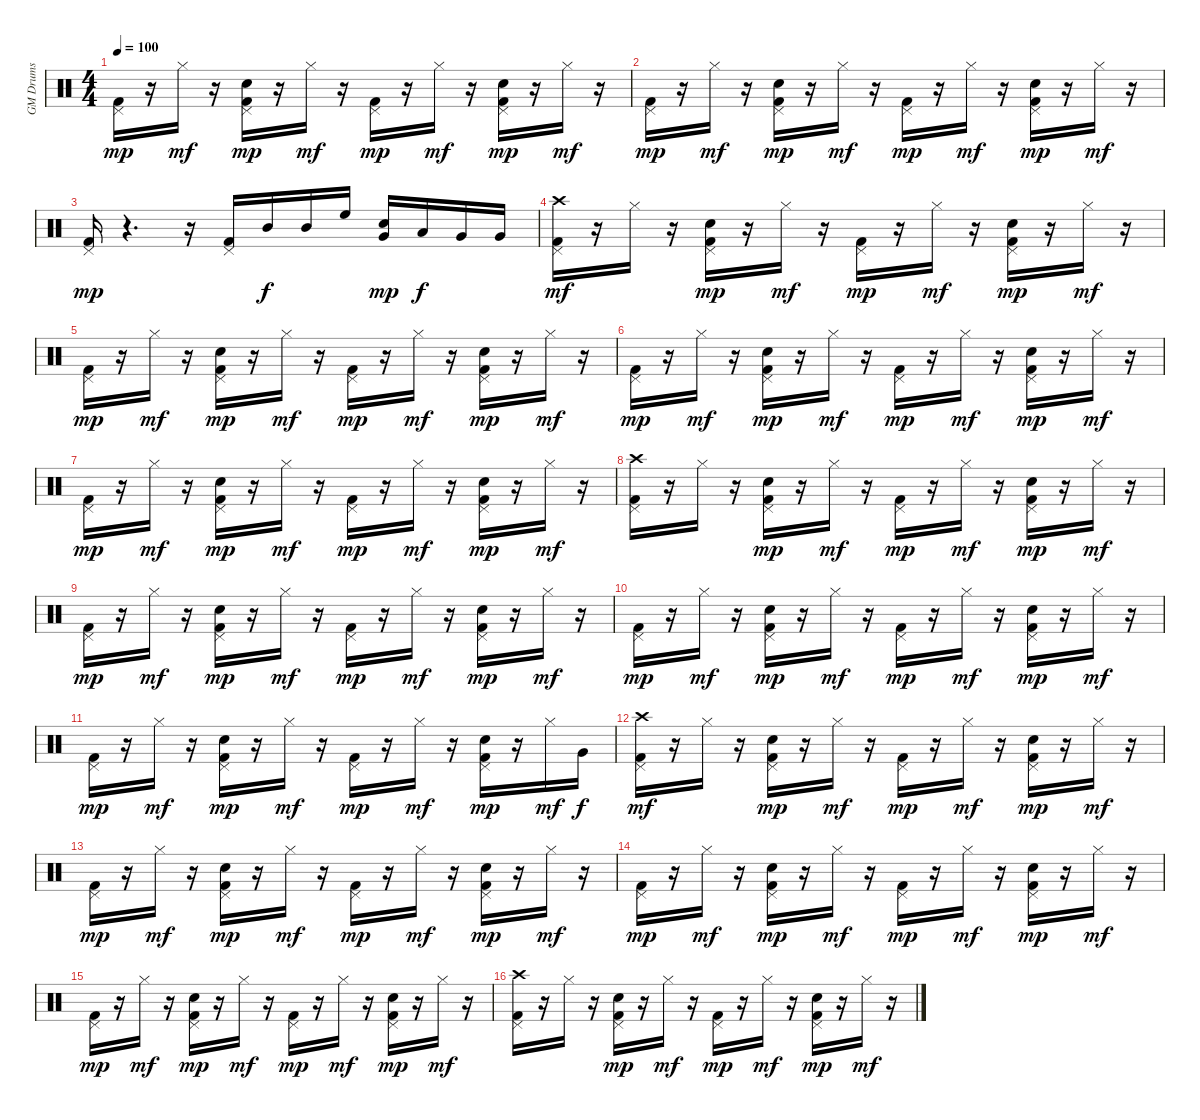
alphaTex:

\track ("GM Drums" "GM Drums") {instrument percussion}
\staff {score}
\articulation defaults
\ts (4 4)
\tempo 100
\clef neutral
\ks c
("Kick (hit) 2" "Pedal Hi-Hat (hit)").16{dy mp} r.16 "Hi-Hat (closed)".16{dy mf} r.16 ("Kick (hit) 2" "Snare (hit) 2" "Pedal Hi-Hat (hit)").16{dy mp} r.16 "Hi-Hat (closed)".16{dy mf} r.16 ("Kick (hit) 2" "Pedal Hi-Hat (hit)").16{dy mp} r.16 "Hi-Hat (closed)".16{dy mf} r.16 ("Kick (hit) 2" "Snare (hit) 2" "Pedal Hi-Hat (hit)").16{dy mp} r.16 "Hi-Hat (closed)".16{dy mf} r.16 |
("Kick (hit) 2" "Pedal Hi-Hat (hit)").16{dy mp} r.16 "Hi-Hat (closed)".16{dy mf} r.16 ("Kick (hit) 2" "Snare (hit) 2" "Pedal Hi-Hat (hit)").16{dy mp} r.16 "Hi-Hat (closed)".16{dy mf} r.16 ("Kick (hit) 2" "Pedal Hi-Hat (hit)").16{dy mp} r.16 "Hi-Hat (closed)".16{dy mf} r.16 ("Kick (hit) 2" "Snare (hit) 2" "Pedal Hi-Hat (hit)").16{dy mp} r.16 "Hi-Hat (closed)".16{dy mf} r.16 |
("Kick (hit) 2" "Pedal Hi-Hat (hit)").16{dy mp} r.4{d} r.16 ("Kick (hit) 2" "Pedal Hi-Hat (hit)").16 "Mid Tom (hit)".16{dy f} "Mid Tom (hit)".16 "High Floor Tom (hit)".16 ("Snare (hit) 2" "Very Low Tom (hit)").16{dy mp} "Low Tom (hit)".16{dy f} "Very Low Tom (hit)".16 "Very Low Tom (hit)".16 |
("Kick (hit) 2" "Pedal Hi-Hat (hit)" "Crash high (hit)").16{dy mf} r.16 "Hi-Hat (closed)".16 r.16 ("Kick (hit) 2" "Snare (hit) 2" "Pedal Hi-Hat (hit)").16{dy mp} r.16 "Hi-Hat (closed)".16{dy mf} r.16 ("Kick (hit) 2" "Pedal Hi-Hat (hit)").16{dy mp} r.16 "Hi-Hat (closed)".16{dy mf} r.16 ("Kick (hit) 2" "Snare (hit) 2" "Pedal Hi-Hat (hit)").16{dy mp} r.16 "Hi-Hat (closed)".16{dy mf} r.16 |
("Kick (hit) 2" "Pedal Hi-Hat (hit)").16{dy mp} r.16 "Hi-Hat (closed)".16{dy mf} r.16 ("Kick (hit) 2" "Snare (hit) 2" "Pedal Hi-Hat (hit)").16{dy mp} r.16 "Hi-Hat (closed)".16{dy mf} r.16 ("Kick (hit) 2" "Pedal Hi-Hat (hit)").16{dy mp} r.16 "Hi-Hat (closed)".16{dy mf} r.16 ("Kick (hit) 2" "Snare (hit) 2" "Pedal Hi-Hat (hit)").16{dy mp} r.16 "Hi-Hat (closed)".16{dy mf} r.16 |
("Kick (hit) 2" "Pedal Hi-Hat (hit)").16{dy mp} r.16 "Hi-Hat (closed)".16{dy mf} r.16 ("Kick (hit) 2" "Snare (hit) 2" "Pedal Hi-Hat (hit)").16{dy mp} r.16 "Hi-Hat (closed)".16{dy mf} r.16 ("Kick (hit) 2" "Pedal Hi-Hat (hit)").16{dy mp} r.16 "Hi-Hat (closed)".16{dy mf} r.16 ("Kick (hit) 2" "Snare (hit) 2" "Pedal Hi-Hat (hit)").16{dy mp} r.16 "Hi-Hat (closed)".16{dy mf} r.16 |
("Kick (hit) 2" "Pedal Hi-Hat (hit)").16{dy mp} r.16 "Hi-Hat (closed)".16{dy mf} r.16 ("Kick (hit) 2" "Snare (hit) 2" "Pedal Hi-Hat (hit)").16{dy mp} r.16 "Hi-Hat (closed)".16{dy mf} r.16 ("Kick (hit) 2" "Pedal Hi-Hat (hit)").16{dy mp} r.16 "Hi-Hat (closed)".16{dy mf} r.16 ("Kick (hit) 2" "Snare (hit) 2" "Pedal Hi-Hat (hit)").16{dy mp} r.16 "Hi-Hat (closed)".16{dy mf} r.16 |
("Kick (hit) 2" "Pedal Hi-Hat (hit)" "Crash high (hit)").16 r.16 "Hi-Hat (closed)".16 r.16 ("Kick (hit) 2" "Snare (hit) 2" "Pedal Hi-Hat (hit)").16{dy mp} r.16 "Hi-Hat (closed)".16{dy mf} r.16 ("Kick (hit) 2" "Pedal Hi-Hat (hit)").16{dy mp} r.16 "Hi-Hat (closed)".16{dy mf} r.16 ("Kick (hit) 2" "Snare (hit) 2" "Pedal Hi-Hat (hit)").16{dy mp} r.16 "Hi-Hat (closed)".16{dy mf} r.16 |
("Kick (hit) 2" "Pedal Hi-Hat (hit)").16{dy mp} r.16 "Hi-Hat (closed)".16{dy mf} r.16 ("Kick (hit) 2" "Snare (hit) 2" "Pedal Hi-Hat (hit)").16{dy mp} r.16 "Hi-Hat (closed)".16{dy mf} r.16 ("Kick (hit) 2" "Pedal Hi-Hat (hit)").16{dy mp} r.16 "Hi-Hat (closed)".16{dy mf} r.16 ("Kick (hit) 2" "Snare (hit) 2" "Pedal Hi-Hat (hit)").16{dy mp} r.16 "Hi-Hat (closed)".16{dy mf} r.16 |
("Kick (hit) 2" "Pedal Hi-Hat (hit)").16{dy mp} r.16 "Hi-Hat (closed)".16{dy mf} r.16 ("Kick (hit) 2" "Snare (hit) 2" "Pedal Hi-Hat (hit)").16{dy mp} r.16 "Hi-Hat (closed)".16{dy mf} r.16 ("Kick (hit) 2" "Pedal Hi-Hat (hit)").16{dy mp} r.16 "Hi-Hat (closed)".16{dy mf} r.16 ("Kick (hit) 2" "Snare (hit) 2" "Pedal Hi-Hat (hit)").16{dy mp} r.16 "Hi-Hat (closed)".16{dy mf} r.16 |
("Kick (hit) 2" "Pedal Hi-Hat (hit)").16{dy mp} r.16 "Hi-Hat (closed)".16{dy mf} r.16 ("Kick (hit) 2" "Snare (hit) 2" "Pedal Hi-Hat (hit)").16{dy mp} r.16 "Hi-Hat (closed)".16{dy mf} r.16 ("Kick (hit) 2" "Pedal Hi-Hat (hit)").16{dy mp} r.16 "Hi-Hat (closed)".16{dy mf} r.16 ("Kick (hit) 2" "Snare (hit) 2" "Pedal Hi-Hat (hit)").16{dy mp} r.16 "Hi-Hat (closed)".16{dy mf} "Very Low Tom (hit)".16{dy f} |
("Kick (hit) 2" "Pedal Hi-Hat (hit)" "Crash high (hit)").16{dy mf} r.16 "Hi-Hat (closed)".16 r.16 ("Kick (hit) 2" "Snare (hit) 2" "Pedal Hi-Hat (hit)").16{dy mp} r.16 "Hi-Hat (closed)".16{dy mf} r.16 ("Kick (hit) 2" "Pedal Hi-Hat (hit)").16{dy mp} r.16 "Hi-Hat (closed)".16{dy mf} r.16 ("Kick (hit) 2" "Snare (hit) 2" "Pedal Hi-Hat (hit)").16{dy mp} r.16 "Hi-Hat (closed)".16{dy mf} r.16 |
("Kick (hit) 2" "Pedal Hi-Hat (hit)").16{dy mp} r.16 "Hi-Hat (closed)".16{dy mf} r.16 ("Kick (hit) 2" "Snare (hit) 2" "Pedal Hi-Hat (hit)").16{dy mp} r.16 "Hi-Hat (closed)".16{dy mf} r.16 ("Kick (hit) 2" "Pedal Hi-Hat (hit)").16{dy mp} r.16 "Hi-Hat (closed)".16{dy mf} r.16 ("Kick (hit) 2" "Snare (hit) 2" "Pedal Hi-Hat (hit)").16{dy mp} r.16 "Hi-Hat (closed)".16{dy mf} r.16 |
("Kick (hit) 2" "Pedal Hi-Hat (hit)").16{dy mp} r.16 "Hi-Hat (closed)".16{dy mf} r.16 ("Kick (hit) 2" "Snare (hit) 2" "Pedal Hi-Hat (hit)").16{dy mp} r.16 "Hi-Hat (closed)".16{dy mf} r.16 ("Kick (hit) 2" "Pedal Hi-Hat (hit)").16{dy mp} r.16 "Hi-Hat (closed)".16{dy mf} r.16 ("Kick (hit) 2" "Snare (hit) 2" "Pedal Hi-Hat (hit)").16{dy mp} r.16 "Hi-Hat (closed)".16{dy mf} r.16 |
("Kick (hit) 2" "Pedal Hi-Hat (hit)").16{dy mp} r.16 "Hi-Hat (closed)".16{dy mf} r.16 ("Kick (hit) 2" "Snare (hit) 2" "Pedal Hi-Hat (hit)").16{dy mp} r.16 "Hi-Hat (closed)".16{dy mf} r.16 ("Kick (hit) 2" "Pedal Hi-Hat (hit)").16{dy mp} r.16 "Hi-Hat (closed)".16{dy mf} r.16 ("Kick (hit) 2" "Snare (hit) 2" "Pedal Hi-Hat (hit)").16{dy mp} r.16 "Hi-Hat (closed)".16{dy mf} r.16 |
("Kick (hit) 2" "Pedal Hi-Hat (hit)" "Crash high (hit)").16 r.16 "Hi-Hat (closed)".16 r.16 ("Kick (hit) 2" "Snare (hit) 2" "Pedal Hi-Hat (hit)").16{dy mp} r.16 "Hi-Hat (closed)".16{dy mf} r.16 ("Kick (hit) 2" "Pedal Hi-Hat (hit)").16{dy mp} r.16 "Hi-Hat (closed)".16{dy mf} r.16 ("Kick (hit) 2" "Snare (hit) 2" "Pedal Hi-Hat (hit)").16{dy mp} r.16 "Hi-Hat (closed)".16{dy mf} r.16
